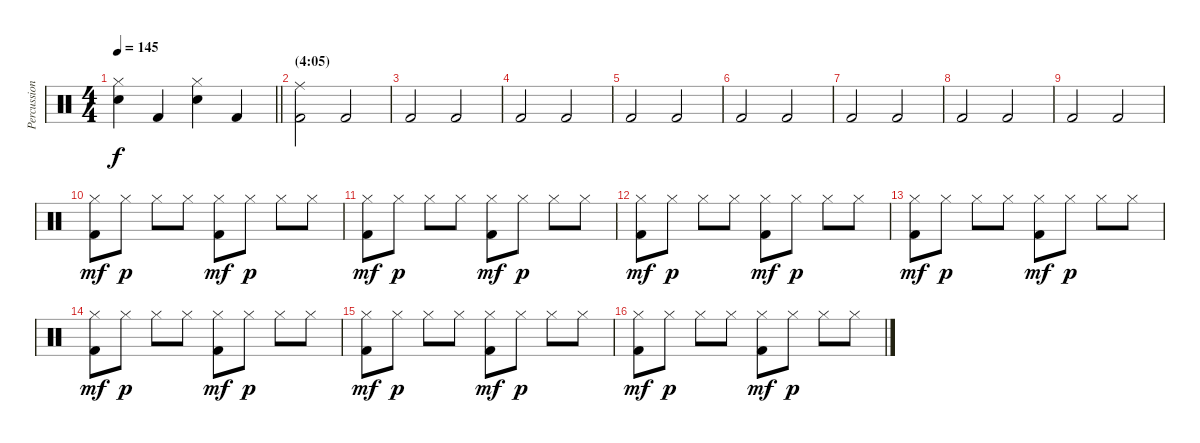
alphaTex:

\track ("Percussion" "Percussion") {instrument percussion}
\staff {score}
\articulation defaults
\ts (4 4)
\tempo 145
\clef neutral
\barLineRight lightlight
\ks c
("Hi-Hat (closed)" "Electric Snare (hit)").4{dy f} "Kick (hit) 2".4 ("Hi-Hat (closed)" "Electric Snare (hit)").4 "Kick (hit) 2".4 |
\section ("" "(4:05)")
("Ride (middle)" "Kick (hit) 2").2 "Kick (hit) 2".2 |
"Kick (hit) 2".2 "Kick (hit) 2".2 |
"Kick (hit) 2".2 "Kick (hit) 2".2 |
"Kick (hit) 2".2 "Kick (hit) 2".2 |
"Kick (hit) 2".2 "Kick (hit) 2".2 |
"Kick (hit) 2".2 "Kick (hit) 2".2 |
"Kick (hit) 2".2 "Kick (hit) 2".2 |
"Kick (hit) 2".2 "Kick (hit) 2".2 |
("Hi-Hat (closed)" "Kick (hit) 2").8{dy mf} "Hi-Hat (closed)".8{dy p} "Hi-Hat (closed)".8 "Hi-Hat (closed)".8 ("Hi-Hat (closed)" "Kick (hit) 2").8{dy mf} "Hi-Hat (closed)".8{dy p} "Hi-Hat (closed)".8 "Hi-Hat (closed)".8 |
("Hi-Hat (closed)" "Kick (hit) 2").8{dy mf} "Hi-Hat (closed)".8{dy p} "Hi-Hat (closed)".8 "Hi-Hat (closed)".8 ("Hi-Hat (closed)" "Kick (hit) 2").8{dy mf} "Hi-Hat (closed)".8{dy p} "Hi-Hat (closed)".8 "Hi-Hat (closed)".8 |
("Hi-Hat (closed)" "Kick (hit) 2").8{dy mf} "Hi-Hat (closed)".8{dy p} "Hi-Hat (closed)".8 "Hi-Hat (closed)".8 ("Hi-Hat (closed)" "Kick (hit) 2").8{dy mf} "Hi-Hat (closed)".8{dy p} "Hi-Hat (closed)".8 "Hi-Hat (closed)".8 |
("Hi-Hat (closed)" "Kick (hit) 2").8{dy mf} "Hi-Hat (closed)".8{dy p} "Hi-Hat (closed)".8 "Hi-Hat (closed)".8 ("Hi-Hat (closed)" "Kick (hit) 2").8{dy mf} "Hi-Hat (closed)".8{dy p} "Hi-Hat (closed)".8 "Hi-Hat (closed)".8 |
("Hi-Hat (closed)" "Kick (hit) 2").8{dy mf} "Hi-Hat (closed)".8{dy p} "Hi-Hat (closed)".8 "Hi-Hat (closed)".8 ("Hi-Hat (closed)" "Kick (hit) 2").8{dy mf} "Hi-Hat (closed)".8{dy p} "Hi-Hat (closed)".8 "Hi-Hat (closed)".8 |
("Hi-Hat (closed)" "Kick (hit) 2").8{dy mf} "Hi-Hat (closed)".8{dy p} "Hi-Hat (closed)".8 "Hi-Hat (closed)".8 ("Hi-Hat (closed)" "Kick (hit) 2").8{dy mf} "Hi-Hat (closed)".8{dy p} "Hi-Hat (closed)".8 "Hi-Hat (closed)".8 |
("Hi-Hat (closed)" "Kick (hit) 2").8{dy mf} "Hi-Hat (closed)".8{dy p} "Hi-Hat (closed)".8 "Hi-Hat (closed)".8 ("Hi-Hat (closed)" "Kick (hit) 2").8{dy mf} "Hi-Hat (closed)".8{dy p} "Hi-Hat (closed)".8 "Hi-Hat (closed)".8
